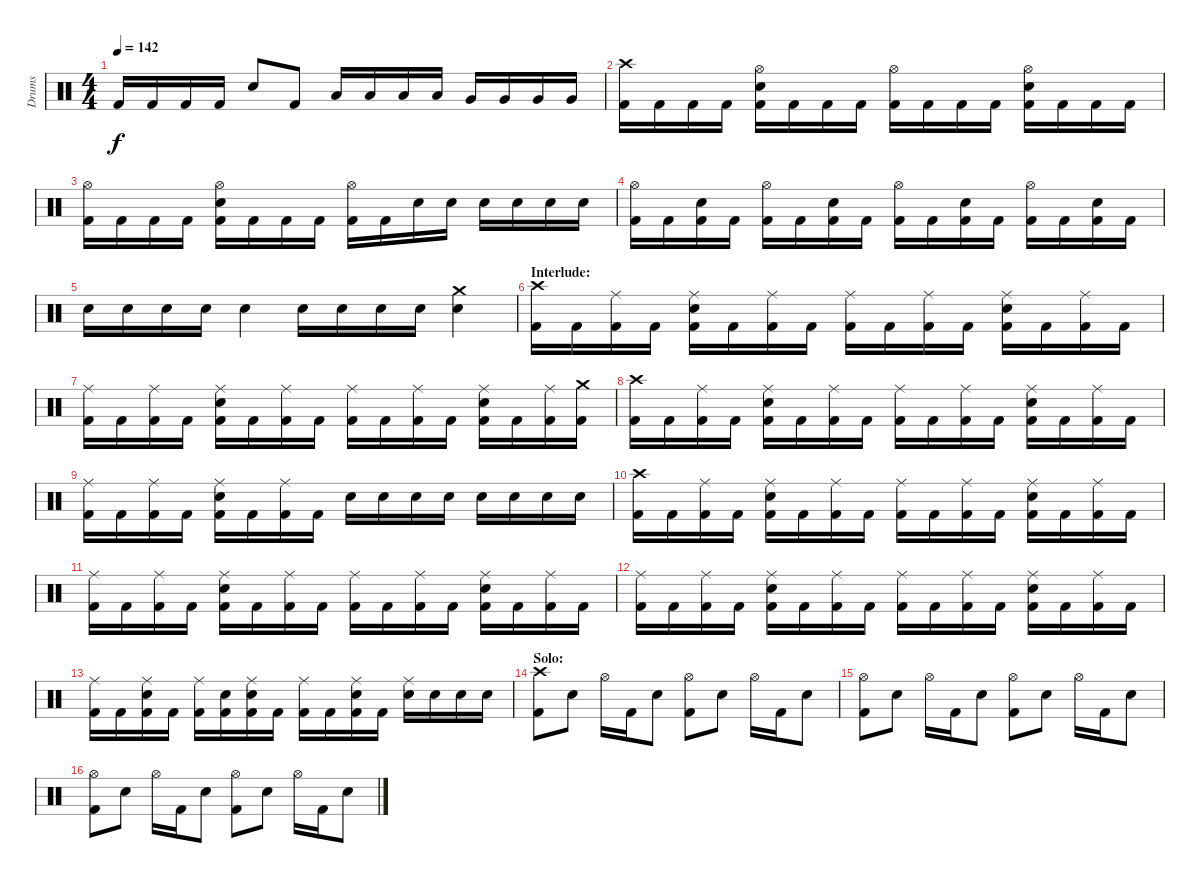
\track ("Drums" "Drums") {instrument percussion}
\staff {score}
\articulation defaults
\ts (4 4)
\tempo 142
\clef neutral
\ks c "Kick (hit) 2".16{dy f} "Kick (hit) 2".16 "Kick (hit) 2".16 "Kick (hit) 2".16 "Electric Snare (hit)".8 "Kick (hit) 2".8 "Low Tom (hit)".16 "Low Tom (hit)".16 "Low Tom (hit)".16 "Low Tom (hit)".16 "Very Low Tom (hit)".16 "Very Low Tom (hit)".16 "Very Low Tom (hit)".16 "Very Low Tom (hit)".16
|
("Crash high (hit)" "Kick (hit) 2").16 "Kick (hit) 2".16 "Kick (hit) 2".16 "Kick (hit) 2".16 ("Hi-Hat (open)" "Electric Snare (hit)" "Kick (hit) 2").16 "Kick (hit) 2".16 "Kick (hit) 2".16 "Kick (hit) 2".16 ("Hi-Hat (open)" "Kick (hit) 2").16 "Kick (hit) 2".16 "Kick (hit) 2".16 "Kick (hit) 2".16 ("Hi-Hat (open)" "Electric Snare (hit)" "Kick (hit) 2").16 "Kick (hit) 2".16 "Kick (hit) 2".16 "Kick (hit) 2".16 |
("Hi-Hat (open)" "Kick (hit) 2").16 "Kick (hit) 2".16 "Kick (hit) 2".16 "Kick (hit) 2".16 ("Hi-Hat (open)" "Electric Snare (hit)" "Kick (hit) 2").16 "Kick (hit) 2".16 "Kick (hit) 2".16 "Kick (hit) 2".16 ("Hi-Hat (open)" "Kick (hit) 2").16 "Kick (hit) 2".16 "Electric Snare (hit)".16 "Electric Snare (hit)".16 "Electric Snare (hit)".16 "Electric Snare (hit)".16 "Electric Snare (hit)".16 "Electric Snare (hit)".16 |
("Hi-Hat (open)" "Kick (hit) 2").16 "Kick (hit) 2".16 ("Electric Snare (hit)" "Kick (hit) 2").16 "Kick (hit) 2".16 ("Hi-Hat (open)" "Kick (hit) 2").16 "Kick (hit) 2".16 ("Electric Snare (hit)" "Kick (hit) 2").16 "Kick (hit) 2".16 ("Hi-Hat (open)" "Kick (hit) 2").16 "Kick (hit) 2".16 ("Electric Snare (hit)" "Kick (hit) 2").16 "Kick (hit) 2".16 ("Hi-Hat (open)" "Kick (hit) 2").16 "Kick (hit) 2".16 ("Electric Snare (hit)" "Kick (hit) 2").16 "Kick (hit) 2".16 |
"Electric Snare (hit)".16 "Electric Snare (hit)".16 "Electric Snare (hit)".16 "Electric Snare (hit)".16 "Electric Snare (hit)".4 "Electric Snare (hit)".16 "Electric Snare (hit)".16 "Electric Snare (hit)".16 "Electric Snare (hit)".16 ("Crash medium (hit)" "Electric Snare (hit)").4 |
\section ("" "Interlude:")
("Crash high (hit)" "Kick (hit) 2").16 "Kick (hit) 2".16 ("Ride (middle)" "Kick (hit) 2").16 "Kick (hit) 2".16 ("Ride (middle)" "Electric Snare (hit)" "Kick (hit) 2").16 "Kick (hit) 2".16 ("Ride (middle)" "Kick (hit) 2").16 "Kick (hit) 2".16 ("Ride (middle)" "Kick (hit) 2").16 "Kick (hit) 2".16 ("Ride (middle)" "Kick (hit) 2").16 "Kick (hit) 2".16 ("Ride (middle)" "Electric Snare (hit)" "Kick (hit) 2").16 "Kick (hit) 2".16 ("Ride (middle)" "Kick (hit) 2").16 "Kick (hit) 2".16 |
("Ride (middle)" "Kick (hit) 2").16 "Kick (hit) 2".16 ("Ride (middle)" "Kick (hit) 2").16 "Kick (hit) 2".16 ("Ride (middle)" "Electric Snare (hit)" "Kick (hit) 2").16 "Kick (hit) 2".16 ("Ride (middle)" "Kick (hit) 2").16 "Kick (hit) 2".16 ("Ride (middle)" "Kick (hit) 2").16 "Kick (hit) 2".16 ("Ride (middle)" "Kick (hit) 2").16 "Kick (hit) 2".16 ("Ride (middle)" "Electric Snare (hit)" "Kick (hit) 2").16 "Kick (hit) 2".16 ("Ride (middle)" "Kick (hit) 2").16 ("Crash medium (hit)" "Kick (hit) 2").16 |
("Crash high (hit)" "Kick (hit) 2").16 "Kick (hit) 2".16 ("Ride (middle)" "Kick (hit) 2").16 "Kick (hit) 2".16 ("Ride (middle)" "Electric Snare (hit)" "Kick (hit) 2").16 "Kick (hit) 2".16 ("Ride (middle)" "Kick (hit) 2").16 "Kick (hit) 2".16 ("Ride (middle)" "Kick (hit) 2").16 "Kick (hit) 2".16 ("Ride (middle)" "Kick (hit) 2").16 "Kick (hit) 2".16 ("Ride (middle)" "Electric Snare (hit)" "Kick (hit) 2").16 "Kick (hit) 2".16 ("Ride (middle)" "Kick (hit) 2").16 "Kick (hit) 2".16 |
("Ride (middle)" "Kick (hit) 2").16 "Kick (hit) 2".16 ("Ride (middle)" "Kick (hit) 2").16 "Kick (hit) 2".16 ("Ride (middle)" "Electric Snare (hit)" "Kick (hit) 2").16 "Kick (hit) 2".16 ("Ride (middle)" "Kick (hit) 2").16 "Kick (hit) 2".16 "Electric Snare (hit)".16 "Electric Snare (hit)".16 "Electric Snare (hit)".16 "Electric Snare (hit)".16 "Electric Snare (hit)".16 "Electric Snare (hit)".16 "Electric Snare (hit)".16 "Electric Snare (hit)".16 |
("Crash high (hit)" "Kick (hit) 2").16 "Kick (hit) 2".16 ("Ride (middle)" "Kick (hit) 2").16 "Kick (hit) 2".16 ("Ride (middle)" "Electric Snare (hit)" "Kick (hit) 2").16 "Kick (hit) 2".16 ("Ride (middle)" "Kick (hit) 2").16 "Kick (hit) 2".16 ("Ride (middle)" "Kick (hit) 2").16 "Kick (hit) 2".16 ("Ride (middle)" "Kick (hit) 2").16 "Kick (hit) 2".16 ("Ride (middle)" "Electric Snare (hit)" "Kick (hit) 2").16 "Kick (hit) 2".16 ("Ride (middle)" "Kick (hit) 2").16 "Kick (hit) 2".16 |
("Ride (middle)" "Kick (hit) 2").16 "Kick (hit) 2".16 ("Ride (middle)" "Kick (hit) 2").16 "Kick (hit) 2".16 ("Ride (middle)" "Electric Snare (hit)" "Kick (hit) 2").16 "Kick (hit) 2".16 ("Ride (middle)" "Kick (hit) 2").16 "Kick (hit) 2".16 ("Ride (middle)" "Kick (hit) 2").16 "Kick (hit) 2".16 ("Ride (middle)" "Kick (hit) 2").16 "Kick (hit) 2".16 ("Ride (middle)" "Electric Snare (hit)" "Kick (hit) 2").16 "Kick (hit) 2".16 ("Ride (middle)" "Kick (hit) 2").16 "Kick (hit) 2".16 |
("Ride (middle)" "Kick (hit) 2").16 "Kick (hit) 2".16 ("Ride (middle)" "Kick (hit) 2").16 "Kick (hit) 2".16 ("Ride (middle)" "Electric Snare (hit)" "Kick (hit) 2").16 "Kick (hit) 2".16 ("Ride (middle)" "Kick (hit) 2").16 "Kick (hit) 2".16 ("Ride (middle)" "Kick (hit) 2").16 "Kick (hit) 2".16 ("Ride (middle)" "Kick (hit) 2").16 "Kick (hit) 2".16 ("Ride (middle)" "Electric Snare (hit)" "Kick (hit) 2").16 "Kick (hit) 2".16 ("Ride (middle)" "Kick (hit) 2").16 "Kick (hit) 2".16 |
("Ride (middle)" "Kick (hit) 2").16 "Kick (hit) 2".16 ("Ride (middle)" "Electric Snare (hit)" "Kick (hit) 2").16 "Kick (hit) 2".16 ("Ride (middle)" "Kick (hit) 2").16 ("Electric Snare (hit)" "Kick (hit) 2").16 ("Ride (middle)" "Electric Snare (hit)" "Kick (hit) 2").16 "Kick (hit) 2".16 ("Ride (middle)" "Kick (hit) 2").16 "Kick (hit) 2".16 ("Ride (middle)" "Electric Snare (hit)" "Kick (hit) 2").16 "Kick (hit) 2".16 ("Ride (middle)" "Electric Snare (hit)").16 "Electric Snare (hit)".16 "Electric Snare (hit)".16 "Electric Snare (hit)".16 |
\section ("" "Solo:")
("Crash high (hit)" "Kick (hit) 2").8 "Electric Snare (hit)".8 "Hi-Hat (open)".16 "Kick (hit) 2".16 "Electric Snare (hit)".8 ("Hi-Hat (open)" "Kick (hit) 2").8 "Electric Snare (hit)".8 "Hi-Hat (open)".16 "Kick (hit) 2".16 "Electric Snare (hit)".8 |
("Hi-Hat (open)" "Kick (hit) 2").8 "Electric Snare (hit)".8 "Hi-Hat (open)".16 "Kick (hit) 2".16 "Electric Snare (hit)".8 ("Hi-Hat (open)" "Kick (hit) 2").8 "Electric Snare (hit)".8 "Hi-Hat (open)".16 "Kick (hit) 2".16 "Electric Snare (hit)".8 |
("Hi-Hat (open)" "Kick (hit) 2").8 "Electric Snare (hit)".8 "Hi-Hat (open)".16 "Kick (hit) 2".16 "Electric Snare (hit)".8 ("Hi-Hat (open)" "Kick (hit) 2").8 "Electric Snare (hit)".8 "Hi-Hat (open)".16 "Kick (hit) 2".16 "Electric Snare (hit)".8
